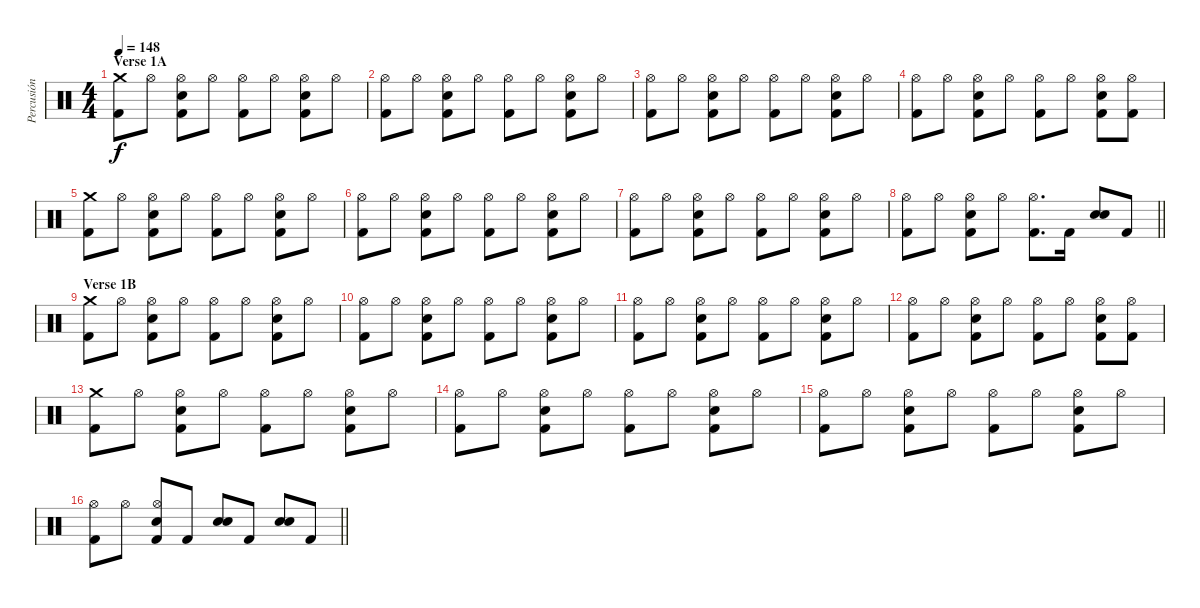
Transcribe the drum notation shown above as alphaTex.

\track ("Percusión" "Percusión") {instrument percussion}
\staff {score}
\articulation defaults
\ts (4 4)
\section ("" "Verse 1A")
\tempo 148
\clef neutral
\ks c
("Crash medium (hit)" "Kick (hit) 2").8{dy f} "Hi-Hat (open)".8 ("Hi-Hat (open)" "Electric Snare (hit)" "Kick (hit) 2").8 "Hi-Hat (open)".8 ("Hi-Hat (open)" "Kick (hit) 2").8 "Hi-Hat (open)".8 ("Hi-Hat (open)" "Electric Snare (hit)" "Kick (hit) 2").8 "Hi-Hat (open)".8 |
("Hi-Hat (open)" "Kick (hit) 2").8 "Hi-Hat (open)".8 ("Hi-Hat (open)" "Electric Snare (hit)" "Kick (hit) 2").8 "Hi-Hat (open)".8 ("Hi-Hat (open)" "Kick (hit) 2").8 "Hi-Hat (open)".8 ("Hi-Hat (open)" "Electric Snare (hit)" "Kick (hit) 2").8 "Hi-Hat (open)".8 |
("Hi-Hat (open)" "Kick (hit) 2").8 "Hi-Hat (open)".8 ("Hi-Hat (open)" "Electric Snare (hit)" "Kick (hit) 2").8 "Hi-Hat (open)".8 ("Hi-Hat (open)" "Kick (hit) 2").8 "Hi-Hat (open)".8 ("Hi-Hat (open)" "Electric Snare (hit)" "Kick (hit) 2").8 "Hi-Hat (open)".8 |
("Hi-Hat (open)" "Kick (hit) 2").8 "Hi-Hat (open)".8 ("Hi-Hat (open)" "Electric Snare (hit)" "Kick (hit) 2").8 "Hi-Hat (open)".8 ("Hi-Hat (open)" "Kick (hit) 2").8 "Hi-Hat (open)".8 ("Hi-Hat (open)" "Electric Snare (hit)" "Kick (hit) 2").8 ("Hi-Hat (open)" "Kick (hit) 2").8 |
("Crash medium (hit)" "Kick (hit) 2").8 "Hi-Hat (open)".8 ("Hi-Hat (open)" "Electric Snare (hit)" "Kick (hit) 2").8 "Hi-Hat (open)".8 ("Hi-Hat (open)" "Kick (hit) 2").8 "Hi-Hat (open)".8 ("Hi-Hat (open)" "Electric Snare (hit)" "Kick (hit) 2").8 "Hi-Hat (open)".8 |
("Hi-Hat (open)" "Kick (hit) 2").8 "Hi-Hat (open)".8 ("Hi-Hat (open)" "Electric Snare (hit)" "Kick (hit) 2").8 "Hi-Hat (open)".8 ("Hi-Hat (open)" "Kick (hit) 2").8 "Hi-Hat (open)".8 ("Hi-Hat (open)" "Electric Snare (hit)" "Kick (hit) 2").8 "Hi-Hat (open)".8 |
("Hi-Hat (open)" "Kick (hit) 2").8 "Hi-Hat (open)".8 ("Hi-Hat (open)" "Electric Snare (hit)" "Kick (hit) 2").8 "Hi-Hat (open)".8 ("Hi-Hat (open)" "Kick (hit) 2").8 "Hi-Hat (open)".8 ("Hi-Hat (open)" "Electric Snare (hit)" "Kick (hit) 2").8 "Hi-Hat (open)".8 |
\barLineRight lightlight
("Hi-Hat (open)" "Kick (hit) 2").8 "Hi-Hat (open)".8 ("Hi-Hat (open)" "Electric Snare (hit)" "Kick (hit) 2").8 "Hi-Hat (open)".8 ("Hi-Hat (open)" "Kick (hit) 2").8{d} "Kick (hit) 2".16 ("Electric Snare (hit)" "Electric Snare (hit)").8{bd 120} "Kick (hit) 2".8 |
\section ("" "Verse 1B")
("Crash medium (hit)" "Kick (hit) 2").8 "Hi-Hat (open)".8 ("Hi-Hat (open)" "Electric Snare (hit)" "Kick (hit) 2").8 "Hi-Hat (open)".8 ("Hi-Hat (open)" "Kick (hit) 2").8 "Hi-Hat (open)".8 ("Hi-Hat (open)" "Electric Snare (hit)" "Kick (hit) 2").8 "Hi-Hat (open)".8 |
("Hi-Hat (open)" "Kick (hit) 2").8 "Hi-Hat (open)".8 ("Hi-Hat (open)" "Electric Snare (hit)" "Kick (hit) 2").8 "Hi-Hat (open)".8 ("Hi-Hat (open)" "Kick (hit) 2").8 "Hi-Hat (open)".8 ("Hi-Hat (open)" "Electric Snare (hit)" "Kick (hit) 2").8 "Hi-Hat (open)".8 |
("Hi-Hat (open)" "Kick (hit) 2").8 "Hi-Hat (open)".8 ("Hi-Hat (open)" "Electric Snare (hit)" "Kick (hit) 2").8 "Hi-Hat (open)".8 ("Hi-Hat (open)" "Kick (hit) 2").8 "Hi-Hat (open)".8 ("Hi-Hat (open)" "Electric Snare (hit)" "Kick (hit) 2").8 "Hi-Hat (open)".8 |
("Hi-Hat (open)" "Kick (hit) 2").8 "Hi-Hat (open)".8 ("Hi-Hat (open)" "Electric Snare (hit)" "Kick (hit) 2").8 "Hi-Hat (open)".8 ("Hi-Hat (open)" "Kick (hit) 2").8 "Hi-Hat (open)".8 ("Hi-Hat (open)" "Electric Snare (hit)" "Kick (hit) 2").8 ("Hi-Hat (open)" "Kick (hit) 2").8 |
("Crash medium (hit)" "Kick (hit) 2").8 "Hi-Hat (open)".8 ("Hi-Hat (open)" "Electric Snare (hit)" "Kick (hit) 2").8 "Hi-Hat (open)".8 ("Hi-Hat (open)" "Kick (hit) 2").8 "Hi-Hat (open)".8 ("Hi-Hat (open)" "Electric Snare (hit)" "Kick (hit) 2").8 "Hi-Hat (open)".8 |
("Hi-Hat (open)" "Kick (hit) 2").8 "Hi-Hat (open)".8 ("Hi-Hat (open)" "Electric Snare (hit)" "Kick (hit) 2").8 "Hi-Hat (open)".8 ("Hi-Hat (open)" "Kick (hit) 2").8 "Hi-Hat (open)".8 ("Hi-Hat (open)" "Electric Snare (hit)" "Kick (hit) 2").8 "Hi-Hat (open)".8 |
("Hi-Hat (open)" "Kick (hit) 2").8 "Hi-Hat (open)".8 ("Hi-Hat (open)" "Electric Snare (hit)" "Kick (hit) 2").8 "Hi-Hat (open)".8 ("Hi-Hat (open)" "Kick (hit) 2").8 "Hi-Hat (open)".8 ("Hi-Hat (open)" "Electric Snare (hit)" "Kick (hit) 2").8 "Hi-Hat (open)".8 |
\barLineRight lightlight
("Hi-Hat (open)" "Kick (hit) 2").8 "Hi-Hat (open)".8 ("Hi-Hat (open)" "Electric Snare (hit)" "Kick (hit) 2").8 "Kick (hit) 2".8 ("Electric Snare (hit)" "Electric Snare (hit)").8{bd 120} "Kick (hit) 2".8 ("Electric Snare (hit)" "Electric Snare (hit)").8{bd 120} "Kick (hit) 2".8
